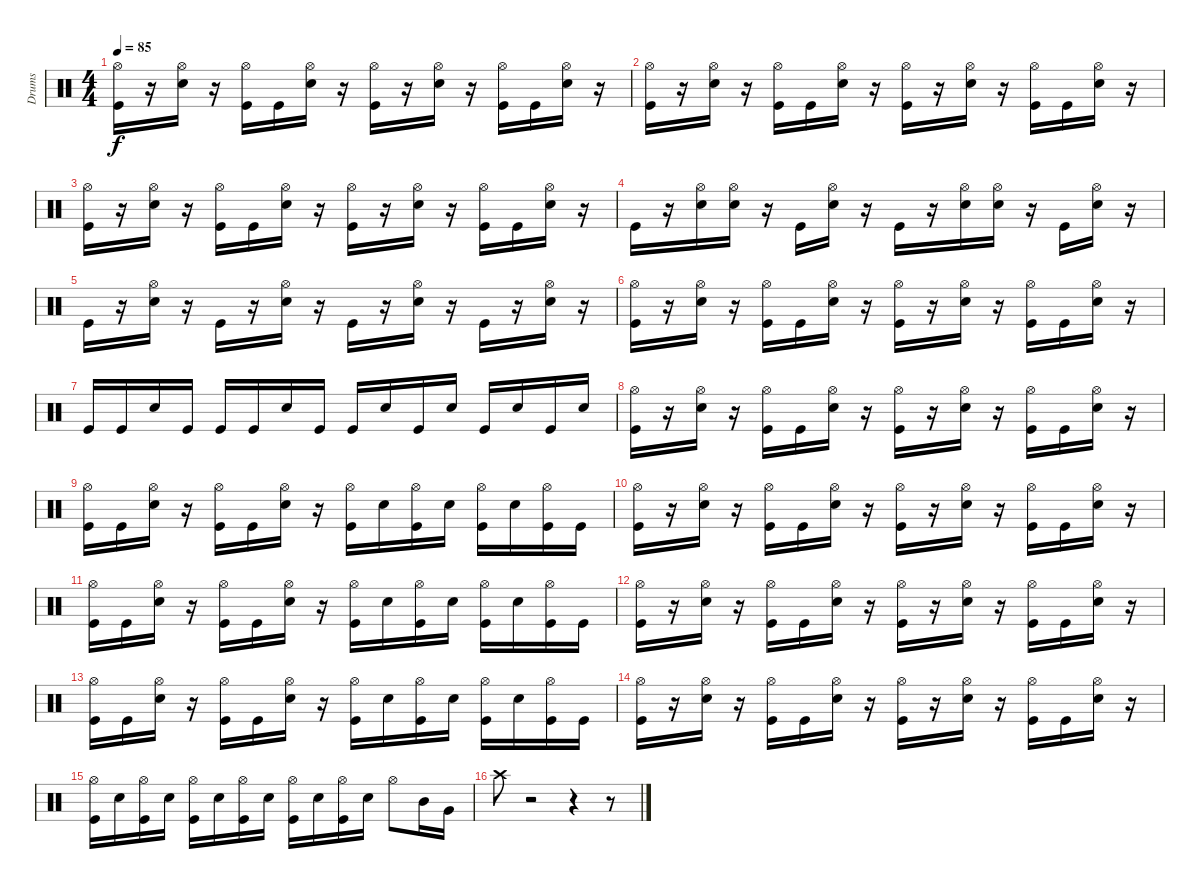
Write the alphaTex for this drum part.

\track ("Drums" "Drums") {instrument percussion}
\staff {score}
\articulation defaults
\ts (4 4)
\tempo 85
\clef neutral
\ks c
("Kick (hit)" "Hi-Hat (open)").16{dy f} r.16 ("Snare (hit) 2" "Hi-Hat (open)").16 r.16 ("Kick (hit)" "Hi-Hat (open)").16 "Kick (hit)".16 ("Snare (hit) 2" "Hi-Hat (open)").16 r.16 ("Kick (hit)" "Hi-Hat (open)").16 r.16 ("Snare (hit) 2" "Hi-Hat (open)").16 r.16 ("Kick (hit)" "Hi-Hat (open)").16 "Kick (hit)".16 ("Snare (hit) 2" "Hi-Hat (open)").16 r.16 |
("Kick (hit)" "Hi-Hat (open)").16 r.16 ("Snare (hit) 2" "Hi-Hat (open)").16 r.16 ("Kick (hit)" "Hi-Hat (open)").16 "Kick (hit)".16 ("Snare (hit) 2" "Hi-Hat (open)").16 r.16 ("Kick (hit)" "Hi-Hat (open)").16 r.16 ("Snare (hit) 2" "Hi-Hat (open)").16 r.16 ("Kick (hit)" "Hi-Hat (open)").16 "Kick (hit)".16 ("Snare (hit) 2" "Hi-Hat (open)").16 r.16 |
("Kick (hit)" "Hi-Hat (open)").16 r.16 ("Snare (hit) 2" "Hi-Hat (open)").16 r.16 ("Kick (hit)" "Hi-Hat (open)").16 "Kick (hit)".16 ("Snare (hit) 2" "Hi-Hat (open)").16 r.16 ("Kick (hit)" "Hi-Hat (open)").16 r.16 ("Snare (hit) 2" "Hi-Hat (open)").16 r.16 ("Kick (hit)" "Hi-Hat (open)").16 "Kick (hit)".16 ("Snare (hit) 2" "Hi-Hat (open)").16 r.16 |
"Kick (hit)".16 r.16 ("Snare (hit) 2" "Hi-Hat (open)").16 ("Snare (hit) 2" "Hi-Hat (open)").16 r.16 "Kick (hit)".16 ("Snare (hit) 2" "Hi-Hat (open)").16 r.16 "Kick (hit)".16 r.16 ("Snare (hit) 2" "Hi-Hat (open)").16 ("Snare (hit) 2" "Hi-Hat (open)").16 r.16 "Kick (hit)".16 ("Snare (hit) 2" "Hi-Hat (open)").16 r.16 |
"Kick (hit)".16 r.16 ("Hi-Hat (open)" "Snare (hit) 2").16 r.16 "Kick (hit)".16 r.16 ("Hi-Hat (open)" "Snare (hit) 2").16 r.16 "Kick (hit)".16 r.16 ("Hi-Hat (open)" "Snare (hit) 2").16 r.16 "Kick (hit)".16 r.16 ("Hi-Hat (open)" "Snare (hit) 2").16 r.16 |
("Kick (hit)" "Hi-Hat (open)").16 r.16 ("Snare (hit) 2" "Hi-Hat (open)").16 r.16 ("Kick (hit)" "Hi-Hat (open)").16 "Kick (hit)".16 ("Snare (hit) 2" "Hi-Hat (open)").16 r.16 ("Kick (hit)" "Hi-Hat (open)").16 r.16 ("Snare (hit) 2" "Hi-Hat (open)").16 r.16 ("Kick (hit)" "Hi-Hat (open)").16 "Kick (hit)".16 ("Snare (hit) 2" "Hi-Hat (open)").16 r.16 |
"Kick (hit)".16 "Kick (hit)".16 "Snare (hit) 2".16 "Kick (hit)".16 "Kick (hit)".16 "Kick (hit)".16 "Snare (hit) 2".16 "Kick (hit)".16 "Kick (hit)".16 "Snare (hit) 2".16 "Kick (hit)".16 "Snare (hit) 2".16 "Kick (hit)".16 "Snare (hit) 2".16 "Kick (hit)".16 "Snare (hit) 2".16 |
("Kick (hit)" "Hi-Hat (open)").16 r.16 ("Snare (hit) 2" "Hi-Hat (open)").16 r.16 ("Kick (hit)" "Hi-Hat (open)").16 "Kick (hit)".16 ("Snare (hit) 2" "Hi-Hat (open)").16 r.16 ("Kick (hit)" "Hi-Hat (open)").16 r.16 ("Snare (hit) 2" "Hi-Hat (open)").16 r.16 ("Kick (hit)" "Hi-Hat (open)").16 "Kick (hit)".16 ("Snare (hit) 2" "Hi-Hat (open)").16 r.16 |
("Kick (hit)" "Hi-Hat (open)").16 "Kick (hit)".16 ("Hi-Hat (open)" "Snare (hit) 2").16 r.16 ("Kick (hit)" "Hi-Hat (open)").16 "Kick (hit)".16 ("Hi-Hat (open)" "Snare (hit) 2").16 r.16 ("Kick (hit)" "Hi-Hat (open)").16 "Snare (hit) 2".16 ("Kick (hit)" "Hi-Hat (open)").16 "Snare (hit) 2".16 ("Kick (hit)" "Hi-Hat (open)").16 "Snare (hit) 2".16 ("Hi-Hat (open)" "Kick (hit)").16 "Kick (hit)".16 |
("Kick (hit)" "Hi-Hat (open)").16 r.16 ("Snare (hit) 2" "Hi-Hat (open)").16 r.16 ("Kick (hit)" "Hi-Hat (open)").16 "Kick (hit)".16 ("Snare (hit) 2" "Hi-Hat (open)").16 r.16 ("Kick (hit)" "Hi-Hat (open)").16 r.16 ("Snare (hit) 2" "Hi-Hat (open)").16 r.16 ("Kick (hit)" "Hi-Hat (open)").16 "Kick (hit)".16 ("Snare (hit) 2" "Hi-Hat (open)").16 r.16 |
("Kick (hit)" "Hi-Hat (open)").16 "Kick (hit)".16 ("Hi-Hat (open)" "Snare (hit) 2").16 r.16 ("Kick (hit)" "Hi-Hat (open)").16 "Kick (hit)".16 ("Hi-Hat (open)" "Snare (hit) 2").16 r.16 ("Kick (hit)" "Hi-Hat (open)").16 "Snare (hit) 2".16 ("Kick (hit)" "Hi-Hat (open)").16 "Snare (hit) 2".16 ("Kick (hit)" "Hi-Hat (open)").16 "Snare (hit) 2".16 ("Hi-Hat (open)" "Kick (hit)").16 "Kick (hit)".16 |
("Kick (hit)" "Hi-Hat (open)").16 r.16 ("Snare (hit) 2" "Hi-Hat (open)").16 r.16 ("Kick (hit)" "Hi-Hat (open)").16 "Kick (hit)".16 ("Snare (hit) 2" "Hi-Hat (open)").16 r.16 ("Kick (hit)" "Hi-Hat (open)").16 r.16 ("Snare (hit) 2" "Hi-Hat (open)").16 r.16 ("Kick (hit)" "Hi-Hat (open)").16 "Kick (hit)".16 ("Snare (hit) 2" "Hi-Hat (open)").16 r.16 |
("Kick (hit)" "Hi-Hat (open)").16 "Kick (hit)".16 ("Hi-Hat (open)" "Snare (hit) 2").16 r.16 ("Kick (hit)" "Hi-Hat (open)").16 "Kick (hit)".16 ("Hi-Hat (open)" "Snare (hit) 2").16 r.16 ("Kick (hit)" "Hi-Hat (open)").16 "Snare (hit) 2".16 ("Kick (hit)" "Hi-Hat (open)").16 "Snare (hit) 2".16 ("Kick (hit)" "Hi-Hat (open)").16 "Snare (hit) 2".16 ("Hi-Hat (open)" "Kick (hit)").16 "Kick (hit)".16 |
("Kick (hit)" "Hi-Hat (open)").16 r.16 ("Snare (hit) 2" "Hi-Hat (open)").16 r.16 ("Kick (hit)" "Hi-Hat (open)").16 "Kick (hit)".16 ("Snare (hit) 2" "Hi-Hat (open)").16 r.16 ("Kick (hit)" "Hi-Hat (open)").16 r.16 ("Snare (hit) 2" "Hi-Hat (open)").16 r.16 ("Kick (hit)" "Hi-Hat (open)").16 "Kick (hit)".16 ("Snare (hit) 2" "Hi-Hat (open)").16 r.16 |
("Hi-Hat (open)" "Kick (hit)").16 "Snare (hit) 2".16 ("Hi-Hat (open)" "Kick (hit)").16 "Snare (hit) 2".16 ("Hi-Hat (open)" "Kick (hit)").16 "Snare (hit) 2".16 ("Hi-Hat (open)" "Kick (hit)").16 "Snare (hit) 2".16 ("Kick (hit)" "Hi-Hat (open)").16 "Snare (hit) 2".16 ("Kick (hit)" "Hi-Hat (open)").16 "Snare (hit) 2".16 "Hi-Hat (open)".8 "Mid Tom (hit)".16 "Very Low Tom (hit)".16 |
"Crash high (hit)".8 r.2 r.4 r.8
